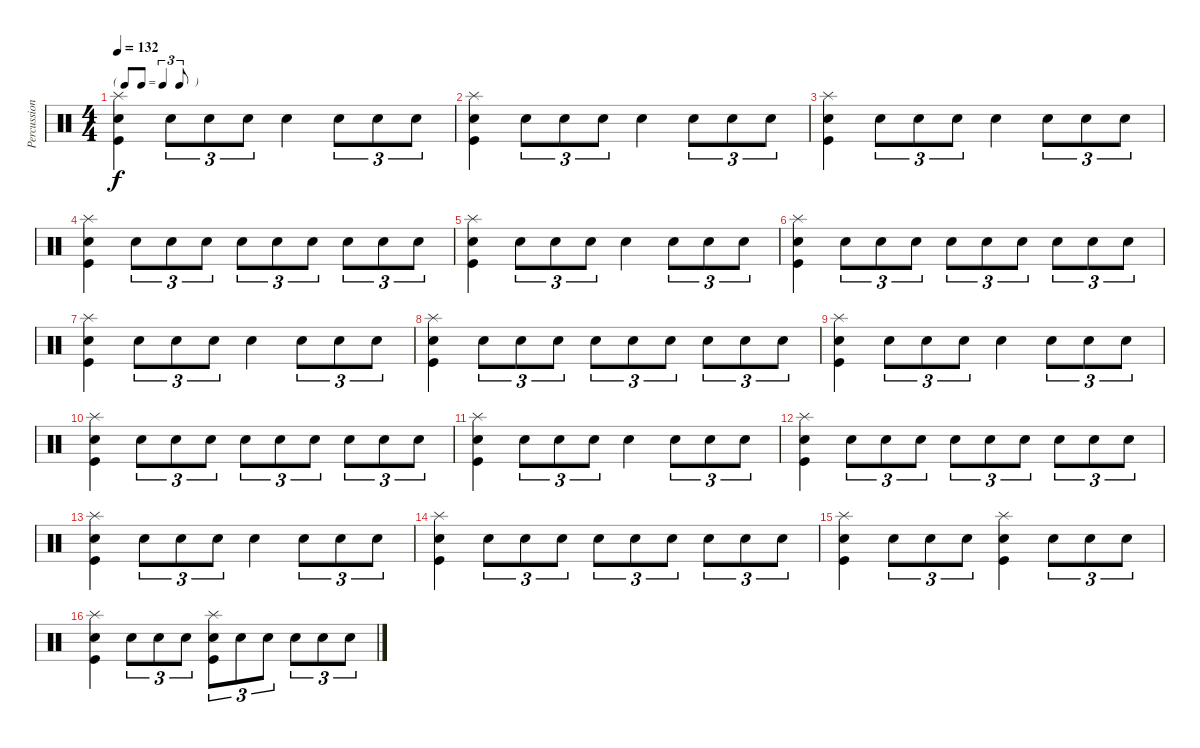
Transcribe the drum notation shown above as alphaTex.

\track ("Percussions" "Percussion") {instrument percussion}
\staff {score}
\articulation defaults
\ts (4 4)
\tf triplet8th
\tempo 132
\clef neutral
\ks c
("Snare (hit) 2" "Kick (hit)" "Splash (hit)").4{dy f} "Snare (hit) 2".8{tu (3 2)} "Snare (hit) 2".8{tu (3 2)} "Snare (hit) 2".8{tu (3 2)} "Snare (hit) 2".4 "Snare (hit) 2".8{tu (3 2)} "Snare (hit) 2".8{tu (3 2)} "Snare (hit) 2".8{tu (3 2)} |
("Snare (hit) 2" "Kick (hit)" "Splash (hit)").4 "Snare (hit) 2".8{tu (3 2)} "Snare (hit) 2".8{tu (3 2)} "Snare (hit) 2".8{tu (3 2)} "Snare (hit) 2".4 "Snare (hit) 2".8{tu (3 2)} "Snare (hit) 2".8{tu (3 2)} "Snare (hit) 2".8{tu (3 2)} |
("Snare (hit) 2" "Kick (hit)" "Splash (hit)").4 "Snare (hit) 2".8{tu (3 2)} "Snare (hit) 2".8{tu (3 2)} "Snare (hit) 2".8{tu (3 2)} "Snare (hit) 2".4 "Snare (hit) 2".8{tu (3 2)} "Snare (hit) 2".8{tu (3 2)} "Snare (hit) 2".8{tu (3 2)} |
("Snare (hit) 2" "Splash (hit)" "Kick (hit)").4 "Snare (hit) 2".8{tu (3 2)} "Snare (hit) 2".8{tu (3 2)} "Snare (hit) 2".8{tu (3 2)} "Snare (hit) 2".8{tu (3 2)} "Snare (hit) 2".8{tu (3 2)} "Snare (hit) 2".8{tu (3 2)} "Snare (hit) 2".8{tu (3 2)} "Snare (hit) 2".8{tu (3 2)} "Snare (hit) 2".8{tu (3 2)} |
("Snare (hit) 2" "Kick (hit)" "Splash (hit)").4 "Snare (hit) 2".8{tu (3 2)} "Snare (hit) 2".8{tu (3 2)} "Snare (hit) 2".8{tu (3 2)} "Snare (hit) 2".4 "Snare (hit) 2".8{tu (3 2)} "Snare (hit) 2".8{tu (3 2)} "Snare (hit) 2".8{tu (3 2)} |
("Snare (hit) 2" "Splash (hit)" "Kick (hit)").4 "Snare (hit) 2".8{tu (3 2)} "Snare (hit) 2".8{tu (3 2)} "Snare (hit) 2".8{tu (3 2)} "Snare (hit) 2".8{tu (3 2)} "Snare (hit) 2".8{tu (3 2)} "Snare (hit) 2".8{tu (3 2)} "Snare (hit) 2".8{tu (3 2)} "Snare (hit) 2".8{tu (3 2)} "Snare (hit) 2".8{tu (3 2)} |
("Snare (hit) 2" "Kick (hit)" "Splash (hit)").4 "Snare (hit) 2".8{tu (3 2)} "Snare (hit) 2".8{tu (3 2)} "Snare (hit) 2".8{tu (3 2)} "Snare (hit) 2".4 "Snare (hit) 2".8{tu (3 2)} "Snare (hit) 2".8{tu (3 2)} "Snare (hit) 2".8{tu (3 2)} |
("Snare (hit) 2" "Splash (hit)" "Kick (hit)").4 "Snare (hit) 2".8{tu (3 2)} "Snare (hit) 2".8{tu (3 2)} "Snare (hit) 2".8{tu (3 2)} "Snare (hit) 2".8{tu (3 2)} "Snare (hit) 2".8{tu (3 2)} "Snare (hit) 2".8{tu (3 2)} "Snare (hit) 2".8{tu (3 2)} "Snare (hit) 2".8{tu (3 2)} "Snare (hit) 2".8{tu (3 2)} |
("Snare (hit) 2" "Kick (hit)" "Splash (hit)").4 "Snare (hit) 2".8{tu (3 2)} "Snare (hit) 2".8{tu (3 2)} "Snare (hit) 2".8{tu (3 2)} "Snare (hit) 2".4 "Snare (hit) 2".8{tu (3 2)} "Snare (hit) 2".8{tu (3 2)} "Snare (hit) 2".8{tu (3 2)} |
("Snare (hit) 2" "Splash (hit)" "Kick (hit)").4 "Snare (hit) 2".8{tu (3 2)} "Snare (hit) 2".8{tu (3 2)} "Snare (hit) 2".8{tu (3 2)} "Snare (hit) 2".8{tu (3 2)} "Snare (hit) 2".8{tu (3 2)} "Snare (hit) 2".8{tu (3 2)} "Snare (hit) 2".8{tu (3 2)} "Snare (hit) 2".8{tu (3 2)} "Snare (hit) 2".8{tu (3 2)} |
("Snare (hit) 2" "Kick (hit)" "Splash (hit)").4 "Snare (hit) 2".8{tu (3 2)} "Snare (hit) 2".8{tu (3 2)} "Snare (hit) 2".8{tu (3 2)} "Snare (hit) 2".4 "Snare (hit) 2".8{tu (3 2)} "Snare (hit) 2".8{tu (3 2)} "Snare (hit) 2".8{tu (3 2)} |
("Snare (hit) 2" "Splash (hit)" "Kick (hit)").4 "Snare (hit) 2".8{tu (3 2)} "Snare (hit) 2".8{tu (3 2)} "Snare (hit) 2".8{tu (3 2)} "Snare (hit) 2".8{tu (3 2)} "Snare (hit) 2".8{tu (3 2)} "Snare (hit) 2".8{tu (3 2)} "Snare (hit) 2".8{tu (3 2)} "Snare (hit) 2".8{tu (3 2)} "Snare (hit) 2".8{tu (3 2)} |
("Snare (hit) 2" "Kick (hit)" "Splash (hit)").4 "Snare (hit) 2".8{tu (3 2)} "Snare (hit) 2".8{tu (3 2)} "Snare (hit) 2".8{tu (3 2)} "Snare (hit) 2".4 "Snare (hit) 2".8{tu (3 2)} "Snare (hit) 2".8{tu (3 2)} "Snare (hit) 2".8{tu (3 2)} |
("Snare (hit) 2" "Splash (hit)" "Kick (hit)").4 "Snare (hit) 2".8{tu (3 2)} "Snare (hit) 2".8{tu (3 2)} "Snare (hit) 2".8{tu (3 2)} "Snare (hit) 2".8{tu (3 2)} "Snare (hit) 2".8{tu (3 2)} "Snare (hit) 2".8{tu (3 2)} "Snare (hit) 2".8{tu (3 2)} "Snare (hit) 2".8{tu (3 2)} "Snare (hit) 2".8{tu (3 2)} |
("Snare (hit) 2" "Kick (hit)" "Splash (hit)").4 "Snare (hit) 2".8{tu (3 2)} "Snare (hit) 2".8{tu (3 2)} "Snare (hit) 2".8{tu (3 2)} ("Snare (hit) 2" "Splash (hit)" "Kick (hit)").4 "Snare (hit) 2".8{tu (3 2)} "Snare (hit) 2".8{tu (3 2)} "Snare (hit) 2".8{tu (3 2)} |
("Snare (hit) 2" "Splash (hit)" "Kick (hit)").4 "Snare (hit) 2".8{tu (3 2)} "Snare (hit) 2".8{tu (3 2)} "Snare (hit) 2".8{tu (3 2)} ("Snare (hit) 2" "Splash (hit)" "Kick (hit)").8{tu (3 2)} "Snare (hit) 2".8{tu (3 2)} "Snare (hit) 2".8{tu (3 2)} "Snare (hit) 2".8{tu (3 2)} "Snare (hit) 2".8{tu (3 2)} "Snare (hit) 2".8{tu (3 2)}
